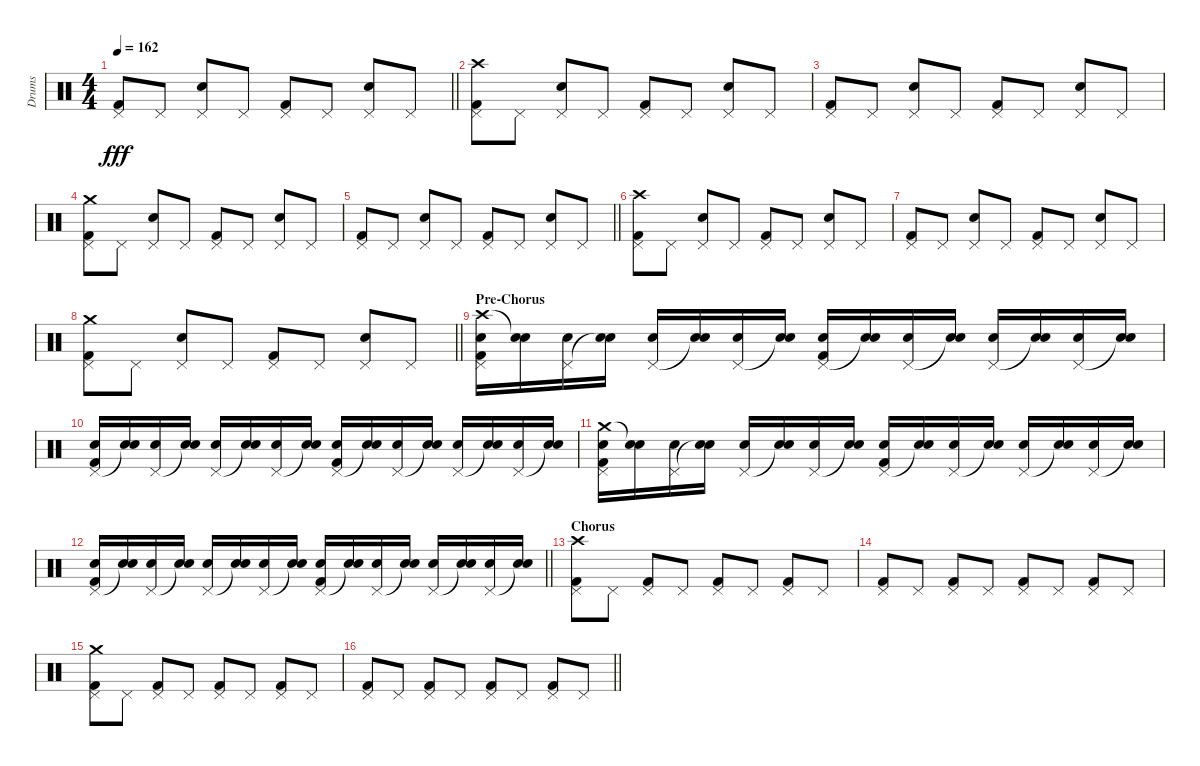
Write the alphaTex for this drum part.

\track ("Drums" "Drums") {instrument percussion}
\staff {score}
\articulation defaults
\ts (4 4)
\tempo 162
\clef neutral
\barLineRight lightlight
\ks c
("Pedal Hi-Hat (hit)" "Kick (hit) 2").8{dy fff} "Pedal Hi-Hat (hit)".8 ("Pedal Hi-Hat (hit)" "Snare (hit) 2").8 "Pedal Hi-Hat (hit)".8 ("Pedal Hi-Hat (hit)" "Kick (hit) 2").8 "Pedal Hi-Hat (hit)".8 ("Pedal Hi-Hat (hit)" "Snare (hit) 2").8 "Pedal Hi-Hat (hit)".8 |
("Crash high (hit)" "Pedal Hi-Hat (hit)" "Kick (hit) 2").8 "Pedal Hi-Hat (hit)".8 ("Pedal Hi-Hat (hit)" "Snare (hit) 2").8 "Pedal Hi-Hat (hit)".8 ("Pedal Hi-Hat (hit)" "Kick (hit) 2").8 "Pedal Hi-Hat (hit)".8 ("Pedal Hi-Hat (hit)" "Snare (hit) 2").8 "Pedal Hi-Hat (hit)".8 |
("Pedal Hi-Hat (hit)" "Kick (hit) 2").8 "Pedal Hi-Hat (hit)".8 ("Pedal Hi-Hat (hit)" "Snare (hit) 2").8 "Pedal Hi-Hat (hit)".8 ("Pedal Hi-Hat (hit)" "Kick (hit) 2").8 "Pedal Hi-Hat (hit)".8 ("Pedal Hi-Hat (hit)" "Snare (hit) 2").8 "Pedal Hi-Hat (hit)".8 |
("Crash medium (hit)" "Pedal Hi-Hat (hit)" "Kick (hit) 2").8 "Pedal Hi-Hat (hit)".8 ("Pedal Hi-Hat (hit)" "Snare (hit) 2").8 "Pedal Hi-Hat (hit)".8 ("Pedal Hi-Hat (hit)" "Kick (hit) 2").8 "Pedal Hi-Hat (hit)".8 ("Pedal Hi-Hat (hit)" "Snare (hit) 2").8 "Pedal Hi-Hat (hit)".8 |
\barLineRight lightlight
("Pedal Hi-Hat (hit)" "Kick (hit) 2").8 "Pedal Hi-Hat (hit)".8 ("Pedal Hi-Hat (hit)" "Snare (hit) 2").8 "Pedal Hi-Hat (hit)".8 ("Pedal Hi-Hat (hit)" "Kick (hit) 2").8 "Pedal Hi-Hat (hit)".8 ("Pedal Hi-Hat (hit)" "Snare (hit) 2").8 "Pedal Hi-Hat (hit)".8 |
("Crash high (hit)" "Pedal Hi-Hat (hit)" "Kick (hit) 2").8 "Pedal Hi-Hat (hit)".8 ("Pedal Hi-Hat (hit)" "Snare (hit) 2").8 "Pedal Hi-Hat (hit)".8 ("Pedal Hi-Hat (hit)" "Kick (hit) 2").8 "Pedal Hi-Hat (hit)".8 ("Pedal Hi-Hat (hit)" "Snare (hit) 2").8 "Pedal Hi-Hat (hit)".8 |
("Pedal Hi-Hat (hit)" "Kick (hit) 2").8 "Pedal Hi-Hat (hit)".8 ("Pedal Hi-Hat (hit)" "Snare (hit) 2").8 "Pedal Hi-Hat (hit)".8 ("Pedal Hi-Hat (hit)" "Kick (hit) 2").8 "Pedal Hi-Hat (hit)".8 ("Pedal Hi-Hat (hit)" "Snare (hit) 2").8 "Pedal Hi-Hat (hit)".8 |
\barLineRight lightlight
("Crash medium (hit)" "Pedal Hi-Hat (hit)" "Kick (hit) 2").8 "Pedal Hi-Hat (hit)".8 ("Pedal Hi-Hat (hit)" "Snare (hit) 2").8 "Pedal Hi-Hat (hit)".8 ("Pedal Hi-Hat (hit)" "Kick (hit) 2").8 "Pedal Hi-Hat (hit)".8 ("Pedal Hi-Hat (hit)" "Snare (hit) 2").8 "Pedal Hi-Hat (hit)".8 |
\section ("" "Pre-Chorus")
("Crash high (hit)" "Pedal Hi-Hat (hit)" "Snare (hit) 2" "Kick (hit) 2").16 ("Snare (hit)"{t} "Snare (hit) 2").16 ("Pedal Hi-Hat (hit)" "Snare (hit) 2").16 ("Snare (hit)"{t} "Snare (hit) 2").16 ("Pedal Hi-Hat (hit)" "Snare (hit) 2").16 ("Snare (hit)"{t} "Snare (hit) 2").16 ("Pedal Hi-Hat (hit)" "Snare (hit) 2").16 ("Snare (hit)"{t} "Snare (hit) 2").16 ("Pedal Hi-Hat (hit)" "Snare (hit) 2" "Kick (hit) 2").16 ("Snare (hit)"{t} "Snare (hit) 2").16 ("Pedal Hi-Hat (hit)" "Snare (hit) 2").16 ("Snare (hit)"{t} "Snare (hit) 2").16 ("Pedal Hi-Hat (hit)" "Snare (hit) 2").16 ("Snare (hit)"{t} "Snare (hit) 2").16 ("Pedal Hi-Hat (hit)" "Snare (hit) 2").16 ("Snare (hit)"{t} "Snare (hit) 2").16 |
("Pedal Hi-Hat (hit)" "Snare (hit) 2" "Kick (hit) 2").16 ("Snare (hit)"{t} "Snare (hit) 2").16 ("Pedal Hi-Hat (hit)" "Snare (hit) 2").16 ("Snare (hit)"{t} "Snare (hit) 2").16 ("Pedal Hi-Hat (hit)" "Snare (hit) 2").16 ("Snare (hit)"{t} "Snare (hit) 2").16 ("Pedal Hi-Hat (hit)" "Snare (hit) 2").16 ("Snare (hit)"{t} "Snare (hit) 2").16 ("Pedal Hi-Hat (hit)" "Snare (hit) 2" "Kick (hit) 2").16 ("Snare (hit)"{t} "Snare (hit) 2").16 ("Pedal Hi-Hat (hit)" "Snare (hit) 2").16 ("Snare (hit)"{t} "Snare (hit) 2").16 ("Pedal Hi-Hat (hit)" "Snare (hit) 2").16 ("Snare (hit)"{t} "Snare (hit) 2").16 ("Pedal Hi-Hat (hit)" "Snare (hit) 2").16 ("Snare (hit)"{t} "Snare (hit) 2").16 |
("Crash medium (hit)" "Pedal Hi-Hat (hit)" "Snare (hit) 2" "Kick (hit) 2").16 ("Snare (hit)"{t} "Snare (hit) 2").16 ("Pedal Hi-Hat (hit)" "Snare (hit) 2").16 ("Snare (hit)"{t} "Snare (hit) 2").16 ("Pedal Hi-Hat (hit)" "Snare (hit) 2").16 ("Snare (hit)"{t} "Snare (hit) 2").16 ("Pedal Hi-Hat (hit)" "Snare (hit) 2").16 ("Snare (hit)"{t} "Snare (hit) 2").16 ("Pedal Hi-Hat (hit)" "Snare (hit) 2" "Kick (hit) 2").16 ("Snare (hit)"{t} "Snare (hit) 2").16 ("Pedal Hi-Hat (hit)" "Snare (hit) 2").16 ("Snare (hit)"{t} "Snare (hit) 2").16 ("Pedal Hi-Hat (hit)" "Snare (hit) 2").16 ("Snare (hit)"{t} "Snare (hit) 2").16 ("Pedal Hi-Hat (hit)" "Snare (hit) 2").16 ("Snare (hit)"{t} "Snare (hit) 2").16 |
\barLineRight lightlight
("Pedal Hi-Hat (hit)" "Snare (hit) 2" "Kick (hit) 2").16 ("Snare (hit)"{t} "Snare (hit) 2").16 ("Pedal Hi-Hat (hit)" "Snare (hit) 2").16 ("Snare (hit)"{t} "Snare (hit) 2").16 ("Pedal Hi-Hat (hit)" "Snare (hit) 2").16 ("Snare (hit)"{t} "Snare (hit) 2").16 ("Pedal Hi-Hat (hit)" "Snare (hit) 2").16 ("Snare (hit)"{t} "Snare (hit) 2").16 ("Pedal Hi-Hat (hit)" "Snare (hit) 2" "Kick (hit) 2").16 ("Snare (hit)"{t} "Snare (hit) 2").16 ("Pedal Hi-Hat (hit)" "Snare (hit) 2").16 ("Snare (hit)"{t} "Snare (hit) 2").16 ("Pedal Hi-Hat (hit)" "Snare (hit) 2").16 ("Snare (hit)"{t} "Snare (hit) 2").16 ("Pedal Hi-Hat (hit)" "Snare (hit) 2").16 ("Snare (hit)"{t} "Snare (hit) 2").16 |
\section ("" "Chorus")
("Crash high (hit)" "Pedal Hi-Hat (hit)" "Kick (hit) 2").8 "Pedal Hi-Hat (hit)".8 ("Pedal Hi-Hat (hit)" "Kick (hit) 2").8 "Pedal Hi-Hat (hit)".8 ("Pedal Hi-Hat (hit)" "Kick (hit) 2").8 "Pedal Hi-Hat (hit)".8 ("Pedal Hi-Hat (hit)" "Kick (hit) 2").8 "Pedal Hi-Hat (hit)".8 |
("Pedal Hi-Hat (hit)" "Kick (hit) 2").8 "Pedal Hi-Hat (hit)".8 ("Pedal Hi-Hat (hit)" "Kick (hit) 2").8 "Pedal Hi-Hat (hit)".8 ("Pedal Hi-Hat (hit)" "Kick (hit) 2").8 "Pedal Hi-Hat (hit)".8 ("Pedal Hi-Hat (hit)" "Kick (hit) 2").8 "Pedal Hi-Hat (hit)".8 |
("Crash medium (hit)" "Pedal Hi-Hat (hit)" "Kick (hit) 2").8 "Pedal Hi-Hat (hit)".8 ("Pedal Hi-Hat (hit)" "Kick (hit) 2").8 "Pedal Hi-Hat (hit)".8 ("Pedal Hi-Hat (hit)" "Kick (hit) 2").8 "Pedal Hi-Hat (hit)".8 ("Pedal Hi-Hat (hit)" "Kick (hit) 2").8 "Pedal Hi-Hat (hit)".8 |
\barLineRight lightlight
("Pedal Hi-Hat (hit)" "Kick (hit) 2").8 "Pedal Hi-Hat (hit)".8 ("Pedal Hi-Hat (hit)" "Kick (hit) 2").8 "Pedal Hi-Hat (hit)".8 ("Pedal Hi-Hat (hit)" "Kick (hit) 2").8 "Pedal Hi-Hat (hit)".8 ("Pedal Hi-Hat (hit)" "Kick (hit) 2").8 "Pedal Hi-Hat (hit)".8
